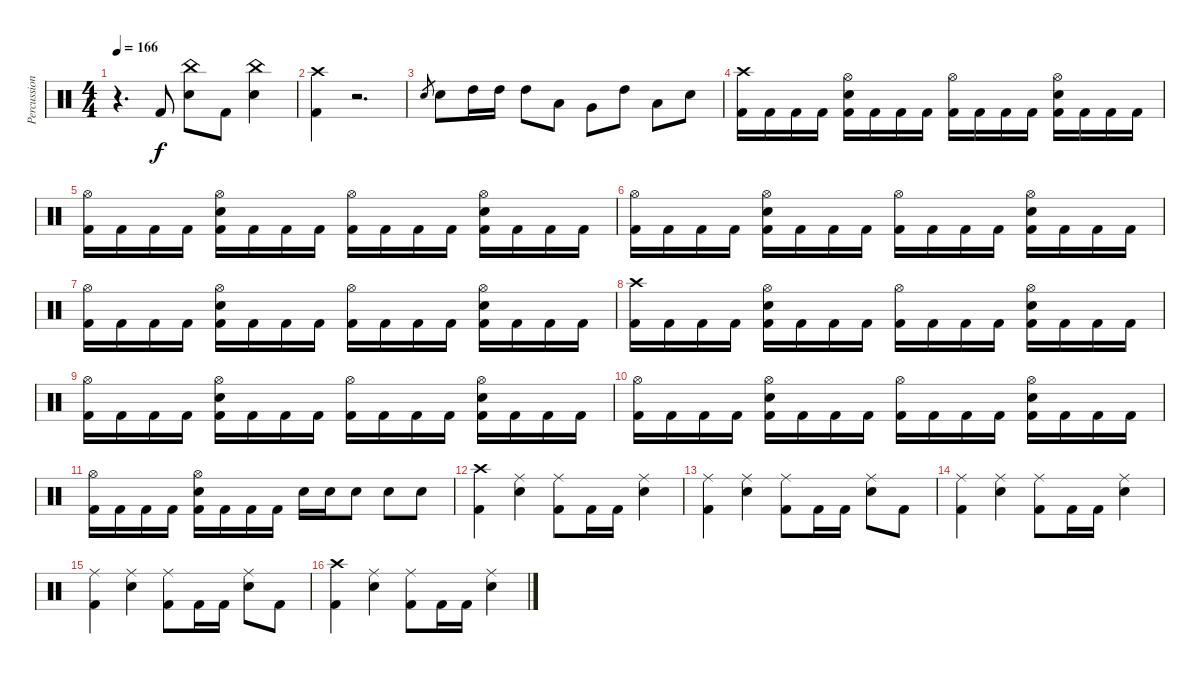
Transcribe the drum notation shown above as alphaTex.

\track ("Percussion" "Percussion") {solo instrument percussion}
\staff {score}
\articulation defaults
\ts (4 4)
\tempo 166
\clef neutral
\ks c
r.4{d dy f} "Kick (hit) 2".8 ("China (hit)" "Snare (hit) 2").8 "Kick (hit) 2".8 ("China (hit)" "Snare (hit) 2").4 |
("Crash high (hit)" "Kick (hit) 2").4 r.2{d} |
"Snare (hit) 2".8{gr} "Snare (hit) 2".8 "High Tom (hit)".16 "High Tom (hit)".16 "High Tom (hit)".8 "Low Tom (hit)".8 "Very Low Tom (hit)".8 "High Tom (hit)".8 "Low Tom (hit)".8 "Snare (hit) 2".8 |
("Crash high (hit)" "Kick (hit) 2").16 "Kick (hit) 2".16 "Kick (hit) 2".16 "Kick (hit) 2".16 ("Snare (hit) 2" "Hi-Hat (open)" "Kick (hit) 2").16 "Kick (hit) 2".16 "Kick (hit) 2".16 "Kick (hit) 2".16 ("Hi-Hat (open)" "Kick (hit) 2").16 "Kick (hit) 2".16 "Kick (hit) 2".16 "Kick (hit) 2".16 ("Snare (hit) 2" "Hi-Hat (open)" "Kick (hit) 2").16 "Kick (hit) 2".16 "Kick (hit) 2".16 "Kick (hit) 2".16 |
("Hi-Hat (open)" "Kick (hit) 2").16 "Kick (hit) 2".16 "Kick (hit) 2".16 "Kick (hit) 2".16 ("Snare (hit) 2" "Hi-Hat (open)" "Kick (hit) 2").16 "Kick (hit) 2".16 "Kick (hit) 2".16 "Kick (hit) 2".16 ("Hi-Hat (open)" "Kick (hit) 2").16 "Kick (hit) 2".16 "Kick (hit) 2".16 "Kick (hit) 2".16 ("Snare (hit) 2" "Hi-Hat (open)" "Kick (hit) 2").16 "Kick (hit) 2".16 "Kick (hit) 2".16 "Kick (hit) 2".16 |
("Hi-Hat (open)" "Kick (hit) 2").16 "Kick (hit) 2".16 "Kick (hit) 2".16 "Kick (hit) 2".16 ("Snare (hit) 2" "Hi-Hat (open)" "Kick (hit) 2").16 "Kick (hit) 2".16 "Kick (hit) 2".16 "Kick (hit) 2".16 ("Hi-Hat (open)" "Kick (hit) 2").16 "Kick (hit) 2".16 "Kick (hit) 2".16 "Kick (hit) 2".16 ("Snare (hit) 2" "Hi-Hat (open)" "Kick (hit) 2").16 "Kick (hit) 2".16 "Kick (hit) 2".16 "Kick (hit) 2".16 |
("Hi-Hat (open)" "Kick (hit) 2").16 "Kick (hit) 2".16 "Kick (hit) 2".16 "Kick (hit) 2".16 ("Snare (hit) 2" "Hi-Hat (open)" "Kick (hit) 2").16 "Kick (hit) 2".16 "Kick (hit) 2".16 "Kick (hit) 2".16 ("Hi-Hat (open)" "Kick (hit) 2").16 "Kick (hit) 2".16 "Kick (hit) 2".16 "Kick (hit) 2".16 ("Snare (hit) 2" "Hi-Hat (open)" "Kick (hit) 2").16 "Kick (hit) 2".16 "Kick (hit) 2".16 "Kick (hit) 2".16 |
("Crash high (hit)" "Kick (hit) 2").16 "Kick (hit) 2".16 "Kick (hit) 2".16 "Kick (hit) 2".16 ("Snare (hit) 2" "Hi-Hat (open)" "Kick (hit) 2").16 "Kick (hit) 2".16 "Kick (hit) 2".16 "Kick (hit) 2".16 ("Hi-Hat (open)" "Kick (hit) 2").16 "Kick (hit) 2".16 "Kick (hit) 2".16 "Kick (hit) 2".16 ("Snare (hit) 2" "Hi-Hat (open)" "Kick (hit) 2").16 "Kick (hit) 2".16 "Kick (hit) 2".16 "Kick (hit) 2".16 |
("Hi-Hat (open)" "Kick (hit) 2").16 "Kick (hit) 2".16 "Kick (hit) 2".16 "Kick (hit) 2".16 ("Snare (hit) 2" "Hi-Hat (open)" "Kick (hit) 2").16 "Kick (hit) 2".16 "Kick (hit) 2".16 "Kick (hit) 2".16 ("Hi-Hat (open)" "Kick (hit) 2").16 "Kick (hit) 2".16 "Kick (hit) 2".16 "Kick (hit) 2".16 ("Snare (hit) 2" "Hi-Hat (open)" "Kick (hit) 2").16 "Kick (hit) 2".16 "Kick (hit) 2".16 "Kick (hit) 2".16 |
("Hi-Hat (open)" "Kick (hit) 2").16 "Kick (hit) 2".16 "Kick (hit) 2".16 "Kick (hit) 2".16 ("Snare (hit) 2" "Hi-Hat (open)" "Kick (hit) 2").16 "Kick (hit) 2".16 "Kick (hit) 2".16 "Kick (hit) 2".16 ("Hi-Hat (open)" "Kick (hit) 2").16 "Kick (hit) 2".16 "Kick (hit) 2".16 "Kick (hit) 2".16 ("Snare (hit) 2" "Hi-Hat (open)" "Kick (hit) 2").16 "Kick (hit) 2".16 "Kick (hit) 2".16 "Kick (hit) 2".16 |
("Hi-Hat (open)" "Kick (hit) 2").16 "Kick (hit) 2".16 "Kick (hit) 2".16 "Kick (hit) 2".16 ("Snare (hit) 2" "Hi-Hat (open)" "Kick (hit) 2").16 "Kick (hit) 2".16 "Kick (hit) 2".16 "Kick (hit) 2".16 "Snare (hit) 2".16 "Snare (hit) 2".16 "Snare (hit) 2".8 "Snare (hit) 2".8 "Snare (hit) 2".8 |
("Crash high (hit)" "Kick (hit) 2").4 ("Snare (hit) 2" "Ride (middle)").4 ("Ride (middle)" "Kick (hit) 2").8 "Kick (hit) 2".16 "Kick (hit) 2".16 ("Snare (hit) 2" "Ride (middle)").4 |
("Ride (middle)" "Kick (hit) 2").4 ("Snare (hit) 2" "Ride (middle)").4 ("Ride (middle)" "Kick (hit) 2").8 "Kick (hit) 2".16 "Kick (hit) 2".16 ("Ride (middle)" "Snare (hit) 2").8 "Kick (hit) 2".8 |
("Ride (middle)" "Kick (hit) 2").4 ("Snare (hit) 2" "Ride (middle)").4 ("Ride (middle)" "Kick (hit) 2").8 "Kick (hit) 2".16 "Kick (hit) 2".16 ("Ride (middle)" "Snare (hit) 2").4 |
("Ride (middle)" "Kick (hit) 2").4 ("Snare (hit) 2" "Ride (middle)").4 ("Ride (middle)" "Kick (hit) 2").8 "Kick (hit) 2".16 "Kick (hit) 2".16 ("Ride (middle)" "Snare (hit) 2").8 "Kick (hit) 2".8 |
("Crash high (hit)" "Kick (hit) 2").4 ("Snare (hit) 2" "Ride (middle)").4 ("Ride (middle)" "Kick (hit) 2").8 "Kick (hit) 2".16 "Kick (hit) 2".16 ("Ride (middle)" "Snare (hit) 2").4
